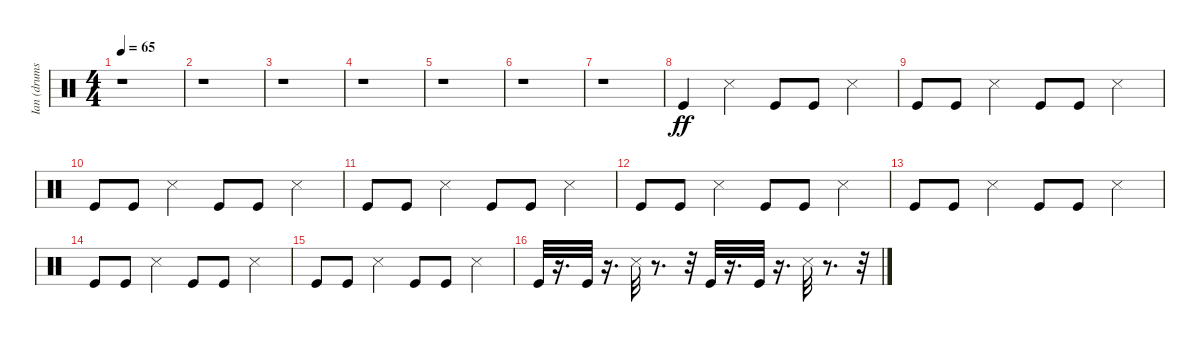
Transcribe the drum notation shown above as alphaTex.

\track ("Ian (drums)" "Ian (drums") {instrument percussion}
\staff {score}
\articulation defaults
\ts (4 4)
\tempo 65
\clef neutral
\ks c
r.1{dy ff} |
r.1 |
r.1 |
r.1 |
r.1 |
r.1 |
r.1 |
"Kick (hit)".4 "Snare (side stick) 3".4 "Kick (hit)".8 "Kick (hit)".8 "Snare (side stick) 3".4 |
"Kick (hit)".8 "Kick (hit)".8 "Snare (side stick) 3".4 "Kick (hit)".8 "Kick (hit)".8 "Snare (side stick) 3".4 |
"Kick (hit)".8 "Kick (hit)".8 "Snare (side stick) 3".4 "Kick (hit)".8 "Kick (hit)".8 "Snare (side stick) 3".4 |
"Kick (hit)".8 "Kick (hit)".8 "Snare (side stick) 3".4 "Kick (hit)".8 "Kick (hit)".8 "Snare (side stick) 3".4 |
"Kick (hit)".8 "Kick (hit)".8 "Snare (side stick) 3".4 "Kick (hit)".8 "Kick (hit)".8 "Snare (side stick) 3".4 |
"Kick (hit)".8 "Kick (hit)".8 "Snare (side stick) 3".4 "Kick (hit)".8 "Kick (hit)".8 "Snare (side stick) 3".4 |
"Kick (hit)".8 "Kick (hit)".8 "Snare (side stick) 3".4 "Kick (hit)".8 "Kick (hit)".8 "Snare (side stick) 3".4 |
"Kick (hit)".8 "Kick (hit)".8 "Snare (side stick) 3".4 "Kick (hit)".8 "Kick (hit)".8 "Snare (side stick) 3".4 |
"Kick (hit)".32 r.16{d} "Kick (hit)".32 r.16{d} "Snare (side stick) 3".32 r.8{d} r.32 "Kick (hit)".32 r.16{d} "Kick (hit)".32 r.16{d} "Snare (side stick) 3".32 r.8{d} r.32
